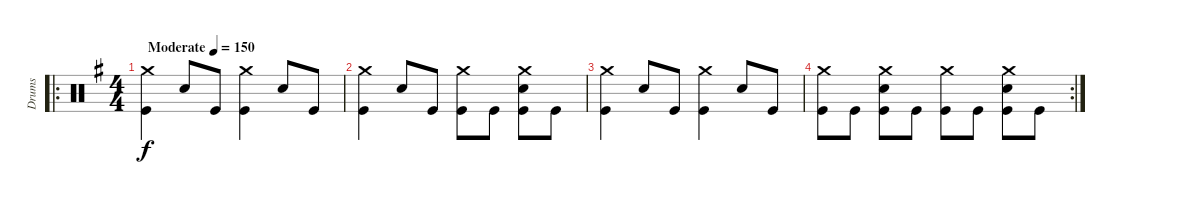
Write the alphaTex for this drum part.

\track ("Drums" "Drums") {instrument percussion}
\staff {score}
\articulation defaults
\ro
\ts (4 4)
\tempo (150 "Moderate")
\clef neutral
\ks g
("Crash medium (hit)" "Kick (hit)").4{dy f} "Snare (hit) 2".8 "Kick (hit)".8 ("Crash medium (hit)" "Kick (hit)").4 "Snare (hit) 2".8 "Kick (hit)".8 |
("Crash medium (hit)" "Kick (hit)").4 "Snare (hit) 2".8 "Kick (hit)".8 ("Crash medium (hit)" "Kick (hit)").8 "Kick (hit)".8 ("Crash medium (hit)" "Snare (hit) 2" "Kick (hit)").8 "Kick (hit)".8 |
("Crash medium (hit)" "Kick (hit)").4 "Snare (hit) 2".8 "Kick (hit)".8 ("Crash medium (hit)" "Kick (hit)").4 "Snare (hit) 2".8 "Kick (hit)".8 |
\rc 2
("Crash medium (hit)" "Kick (hit)").8 "Kick (hit)".8 ("Crash medium (hit)" "Snare (hit) 2" "Kick (hit)").8 "Kick (hit)".8 ("Crash medium (hit)" "Kick (hit)").8 "Kick (hit)".8 ("Crash medium (hit)" "Snare (hit) 2" "Kick (hit)").8 "Kick (hit)".8
